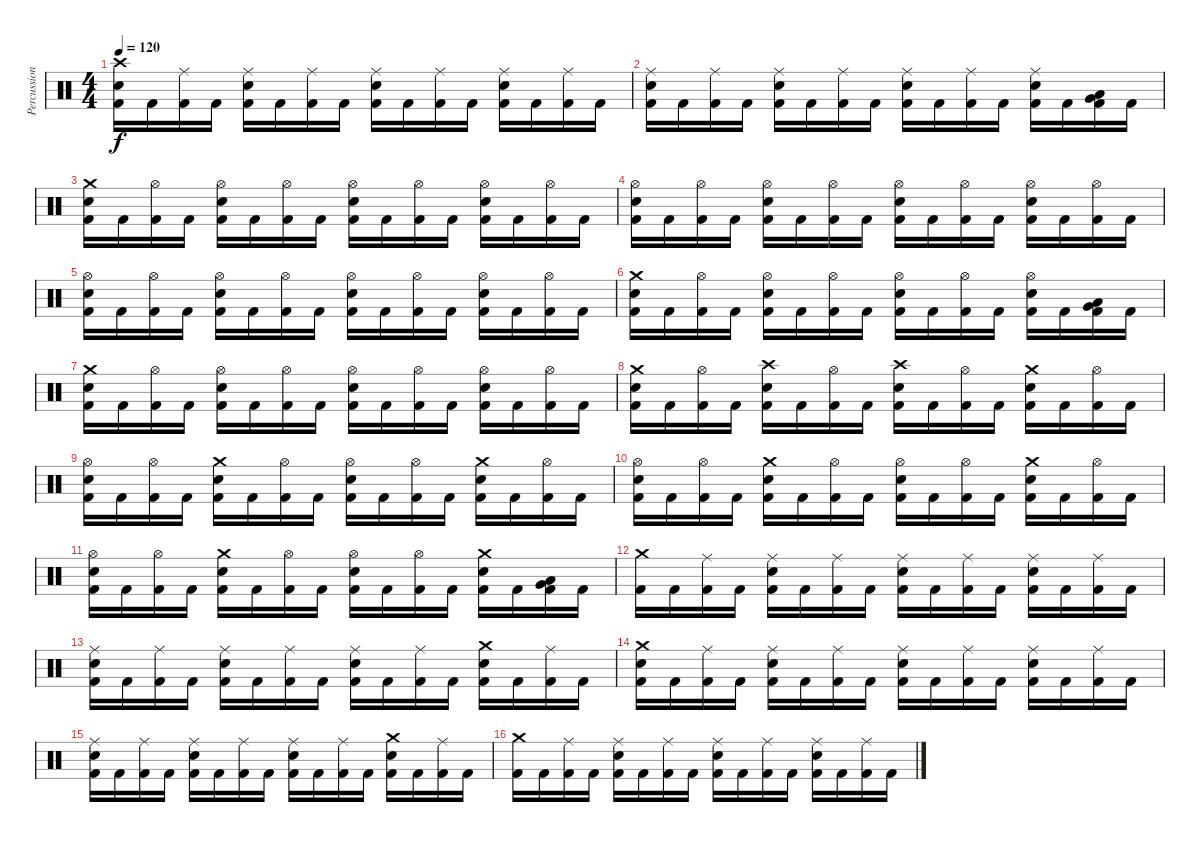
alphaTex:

\track ("Percussion" "Percussion") {instrument percussion}
\staff {score}
\articulation defaults
\ts (4 4)
\tempo 120
\clef neutral
\ks c
("Electric Snare (hit)" "Crash high (hit)" "Kick (hit) 2").16{dy f} "Kick (hit) 2".16 ("Ride (middle)" "Kick (hit) 2").16 "Kick (hit) 2".16 ("Electric Snare (hit)" "Ride (middle)" "Kick (hit) 2").16 "Kick (hit) 2".16 ("Ride (middle)" "Kick (hit) 2").16 "Kick (hit) 2".16 ("Electric Snare (hit)" "Ride (middle)" "Kick (hit) 2").16 "Kick (hit) 2".16 ("Ride (middle)" "Kick (hit) 2").16 "Kick (hit) 2".16 ("Electric Snare (hit)" "Ride (middle)" "Kick (hit) 2").16 "Kick (hit) 2".16 ("Ride (middle)" "Kick (hit) 2").16 "Kick (hit) 2".16 |
("Electric Snare (hit)" "Ride (middle)" "Kick (hit) 2").16 "Kick (hit) 2".16 ("Ride (middle)" "Kick (hit) 2").16 "Kick (hit) 2".16 ("Electric Snare (hit)" "Ride (middle)" "Kick (hit) 2").16 "Kick (hit) 2".16 ("Ride (middle)" "Kick (hit) 2").16 "Kick (hit) 2".16 ("Electric Snare (hit)" "Ride (middle)" "Kick (hit) 2").16 "Kick (hit) 2".16 ("Ride (middle)" "Kick (hit) 2").16 "Kick (hit) 2".16 ("Electric Snare (hit)" "Ride (middle)" "Kick (hit) 2").16 "Kick (hit) 2".16 ("Very Low Tom (hit)" "Low Tom (hit)" "Kick (hit) 2").16 "Kick (hit) 2".16 |
("Electric Snare (hit)" "Crash medium (hit)" "Kick (hit) 2").16 "Kick (hit) 2".16 ("Hi-Hat (open)" "Kick (hit) 2").16 "Kick (hit) 2".16 ("Electric Snare (hit)" "Hi-Hat (open)" "Kick (hit) 2").16 "Kick (hit) 2".16 ("Hi-Hat (open)" "Kick (hit) 2").16 "Kick (hit) 2".16 ("Electric Snare (hit)" "Hi-Hat (open)" "Kick (hit) 2").16 "Kick (hit) 2".16 ("Hi-Hat (open)" "Kick (hit) 2").16 "Kick (hit) 2".16 ("Electric Snare (hit)" "Hi-Hat (open)" "Kick (hit) 2").16 "Kick (hit) 2".16 ("Hi-Hat (open)" "Kick (hit) 2").16 "Kick (hit) 2".16 |
("Electric Snare (hit)" "Hi-Hat (open)" "Kick (hit) 2").16 "Kick (hit) 2".16 ("Hi-Hat (open)" "Kick (hit) 2").16 "Kick (hit) 2".16 ("Electric Snare (hit)" "Hi-Hat (open)" "Kick (hit) 2").16 "Kick (hit) 2".16 ("Hi-Hat (open)" "Kick (hit) 2").16 "Kick (hit) 2".16 ("Electric Snare (hit)" "Hi-Hat (open)" "Kick (hit) 2").16 "Kick (hit) 2".16 ("Hi-Hat (open)" "Kick (hit) 2").16 "Kick (hit) 2".16 ("Electric Snare (hit)" "Hi-Hat (open)" "Kick (hit) 2").16 "Kick (hit) 2".16 ("Hi-Hat (open)" "Kick (hit) 2").16 "Kick (hit) 2".16 |
("Electric Snare (hit)" "Hi-Hat (open)" "Kick (hit) 2").16 "Kick (hit) 2".16 ("Hi-Hat (open)" "Kick (hit) 2").16 "Kick (hit) 2".16 ("Electric Snare (hit)" "Hi-Hat (open)" "Kick (hit) 2").16 "Kick (hit) 2".16 ("Hi-Hat (open)" "Kick (hit) 2").16 "Kick (hit) 2".16 ("Electric Snare (hit)" "Hi-Hat (open)" "Kick (hit) 2").16 "Kick (hit) 2".16 ("Hi-Hat (open)" "Kick (hit) 2").16 "Kick (hit) 2".16 ("Electric Snare (hit)" "Hi-Hat (open)" "Kick (hit) 2").16 "Kick (hit) 2".16 ("Hi-Hat (open)" "Kick (hit) 2").16 "Kick (hit) 2".16 |
("Electric Snare (hit)" "Crash medium (hit)" "Kick (hit) 2").16 "Kick (hit) 2".16 ("Hi-Hat (open)" "Kick (hit) 2").16 "Kick (hit) 2".16 ("Electric Snare (hit)" "Hi-Hat (open)" "Kick (hit) 2").16 "Kick (hit) 2".16 ("Hi-Hat (open)" "Kick (hit) 2").16 "Kick (hit) 2".16 ("Electric Snare (hit)" "Hi-Hat (open)" "Kick (hit) 2").16 "Kick (hit) 2".16 ("Hi-Hat (open)" "Kick (hit) 2").16 "Kick (hit) 2".16 ("Electric Snare (hit)" "Hi-Hat (open)" "Kick (hit) 2").16 "Kick (hit) 2".16 ("Low Tom (hit)" "Very Low Tom (hit)" "Kick (hit) 2").16 "Kick (hit) 2".16 |
("Electric Snare (hit)" "Crash medium (hit)" "Kick (hit) 2").16 "Kick (hit) 2".16 ("Hi-Hat (open)" "Kick (hit) 2").16 "Kick (hit) 2".16 ("Electric Snare (hit)" "Hi-Hat (open)" "Kick (hit) 2").16 "Kick (hit) 2".16 ("Hi-Hat (open)" "Kick (hit) 2").16 "Kick (hit) 2".16 ("Electric Snare (hit)" "Hi-Hat (open)" "Kick (hit) 2").16 "Kick (hit) 2".16 ("Hi-Hat (open)" "Kick (hit) 2").16 "Kick (hit) 2".16 ("Electric Snare (hit)" "Hi-Hat (open)" "Kick (hit) 2").16 "Kick (hit) 2".16 ("Hi-Hat (open)" "Kick (hit) 2").16 "Kick (hit) 2".16 |
("Electric Snare (hit)" "Crash medium (hit)" "Kick (hit) 2").16 "Kick (hit) 2".16 ("Hi-Hat (open)" "Kick (hit) 2").16 "Kick (hit) 2".16 ("Electric Snare (hit)" "Crash high (hit)" "Kick (hit) 2").16 "Kick (hit) 2".16 ("Hi-Hat (open)" "Kick (hit) 2").16 "Kick (hit) 2".16 ("Electric Snare (hit)" "Crash high (hit)" "Kick (hit) 2").16 "Kick (hit) 2".16 ("Hi-Hat (open)" "Kick (hit) 2").16 "Kick (hit) 2".16 ("Electric Snare (hit)" "Crash medium (hit)" "Kick (hit) 2").16 "Kick (hit) 2".16 ("Hi-Hat (open)" "Kick (hit) 2").16 "Kick (hit) 2".16 |
("Electric Snare (hit)" "Hi-Hat (open)" "Kick (hit) 2").16 "Kick (hit) 2".16 ("Hi-Hat (open)" "Kick (hit) 2").16 "Kick (hit) 2".16 ("Electric Snare (hit)" "Crash medium (hit)" "Kick (hit) 2").16 "Kick (hit) 2".16 ("Hi-Hat (open)" "Kick (hit) 2").16 "Kick (hit) 2".16 ("Electric Snare (hit)" "Hi-Hat (open)" "Kick (hit) 2").16 "Kick (hit) 2".16 ("Hi-Hat (open)" "Kick (hit) 2").16 "Kick (hit) 2".16 ("Electric Snare (hit)" "Crash medium (hit)" "Kick (hit) 2").16 "Kick (hit) 2".16 ("Hi-Hat (open)" "Kick (hit) 2").16 "Kick (hit) 2".16 |
("Electric Snare (hit)" "Hi-Hat (open)" "Kick (hit) 2").16 "Kick (hit) 2".16 ("Hi-Hat (open)" "Kick (hit) 2").16 "Kick (hit) 2".16 ("Electric Snare (hit)" "Crash medium (hit)" "Kick (hit) 2").16 "Kick (hit) 2".16 ("Hi-Hat (open)" "Kick (hit) 2").16 "Kick (hit) 2".16 ("Electric Snare (hit)" "Hi-Hat (open)" "Kick (hit) 2").16 "Kick (hit) 2".16 ("Hi-Hat (open)" "Kick (hit) 2").16 "Kick (hit) 2".16 ("Electric Snare (hit)" "Crash medium (hit)" "Kick (hit) 2").16 "Kick (hit) 2".16 ("Hi-Hat (open)" "Kick (hit) 2").16 "Kick (hit) 2".16 |
("Electric Snare (hit)" "Hi-Hat (open)" "Kick (hit) 2").16 "Kick (hit) 2".16 ("Hi-Hat (open)" "Kick (hit) 2").16 "Kick (hit) 2".16 ("Electric Snare (hit)" "Crash medium (hit)" "Kick (hit) 2").16 "Kick (hit) 2".16 ("Hi-Hat (open)" "Kick (hit) 2").16 "Kick (hit) 2".16 ("Electric Snare (hit)" "Hi-Hat (open)" "Kick (hit) 2").16 "Kick (hit) 2".16 ("Hi-Hat (open)" "Kick (hit) 2").16 "Kick (hit) 2".16 ("Electric Snare (hit)" "Crash medium (hit)" "Kick (hit) 2").16 "Kick (hit) 2".16 ("Very Low Tom (hit)" "Low Tom (hit)" "Kick (hit) 2").16 "Kick (hit) 2".16 |
("Crash medium (hit)" "Kick (hit) 2").16 "Kick (hit) 2".16 ("Ride (middle)" "Kick (hit) 2").16 "Kick (hit) 2".16 ("Electric Snare (hit)" "Ride (middle)" "Kick (hit) 2").16 "Kick (hit) 2".16 ("Ride (middle)" "Kick (hit) 2").16 "Kick (hit) 2".16 ("Electric Snare (hit)" "Ride (middle)" "Kick (hit) 2").16 "Kick (hit) 2".16 ("Ride (middle)" "Kick (hit) 2").16 "Kick (hit) 2".16 ("Electric Snare (hit)" "Ride (middle)" "Kick (hit) 2").16 "Kick (hit) 2".16 ("Ride (middle)" "Kick (hit) 2").16 "Kick (hit) 2".16 |
("Electric Snare (hit)" "Ride (middle)" "Kick (hit) 2").16 "Kick (hit) 2".16 ("Ride (middle)" "Kick (hit) 2").16 "Kick (hit) 2".16 ("Electric Snare (hit)" "Ride (middle)" "Kick (hit) 2").16 "Kick (hit) 2".16 ("Ride (middle)" "Kick (hit) 2").16 "Kick (hit) 2".16 ("Electric Snare (hit)" "Ride (middle)" "Kick (hit) 2").16 "Kick (hit) 2".16 ("Ride (middle)" "Kick (hit) 2").16 "Kick (hit) 2".16 ("Electric Snare (hit)" "Crash medium (hit)" "Kick (hit) 2").16 "Kick (hit) 2".16 ("Ride (middle)" "Kick (hit) 2").16 "Kick (hit) 2".16 |
("Crash medium (hit)" "Electric Snare (hit)" "Kick (hit) 2").16 "Kick (hit) 2".16 ("Ride (middle)" "Kick (hit) 2").16 "Kick (hit) 2".16 ("Electric Snare (hit)" "Ride (middle)" "Kick (hit) 2").16 "Kick (hit) 2".16 ("Ride (middle)" "Kick (hit) 2").16 "Kick (hit) 2".16 ("Electric Snare (hit)" "Ride (middle)" "Kick (hit) 2").16 "Kick (hit) 2".16 ("Ride (middle)" "Kick (hit) 2").16 "Kick (hit) 2".16 ("Electric Snare (hit)" "Ride (middle)" "Kick (hit) 2").16 "Kick (hit) 2".16 ("Ride (middle)" "Kick (hit) 2").16 "Kick (hit) 2".16 |
("Electric Snare (hit)" "Ride (middle)" "Kick (hit) 2").16 "Kick (hit) 2".16 ("Ride (middle)" "Kick (hit) 2").16 "Kick (hit) 2".16 ("Electric Snare (hit)" "Ride (middle)" "Kick (hit) 2").16 "Kick (hit) 2".16 ("Ride (middle)" "Kick (hit) 2").16 "Kick (hit) 2".16 ("Electric Snare (hit)" "Ride (middle)" "Kick (hit) 2").16 "Kick (hit) 2".16 ("Ride (middle)" "Kick (hit) 2").16 "Kick (hit) 2".16 ("Electric Snare (hit)" "Crash medium (hit)" "Kick (hit) 2").16 "Kick (hit) 2".16 ("Ride (middle)" "Kick (hit) 2").16 "Kick (hit) 2".16 |
("Crash medium (hit)" "Kick (hit) 2").16 "Kick (hit) 2".16 ("Ride (middle)" "Kick (hit) 2").16 "Kick (hit) 2".16 ("Electric Snare (hit)" "Ride (middle)" "Kick (hit) 2").16 "Kick (hit) 2".16 ("Ride (middle)" "Kick (hit) 2").16 "Kick (hit) 2".16 ("Electric Snare (hit)" "Ride (middle)" "Kick (hit) 2").16 "Kick (hit) 2".16 ("Ride (middle)" "Kick (hit) 2").16 "Kick (hit) 2".16 ("Electric Snare (hit)" "Ride (middle)" "Kick (hit) 2").16 "Kick (hit) 2".16 ("Ride (middle)" "Kick (hit) 2").16 "Kick (hit) 2".16
